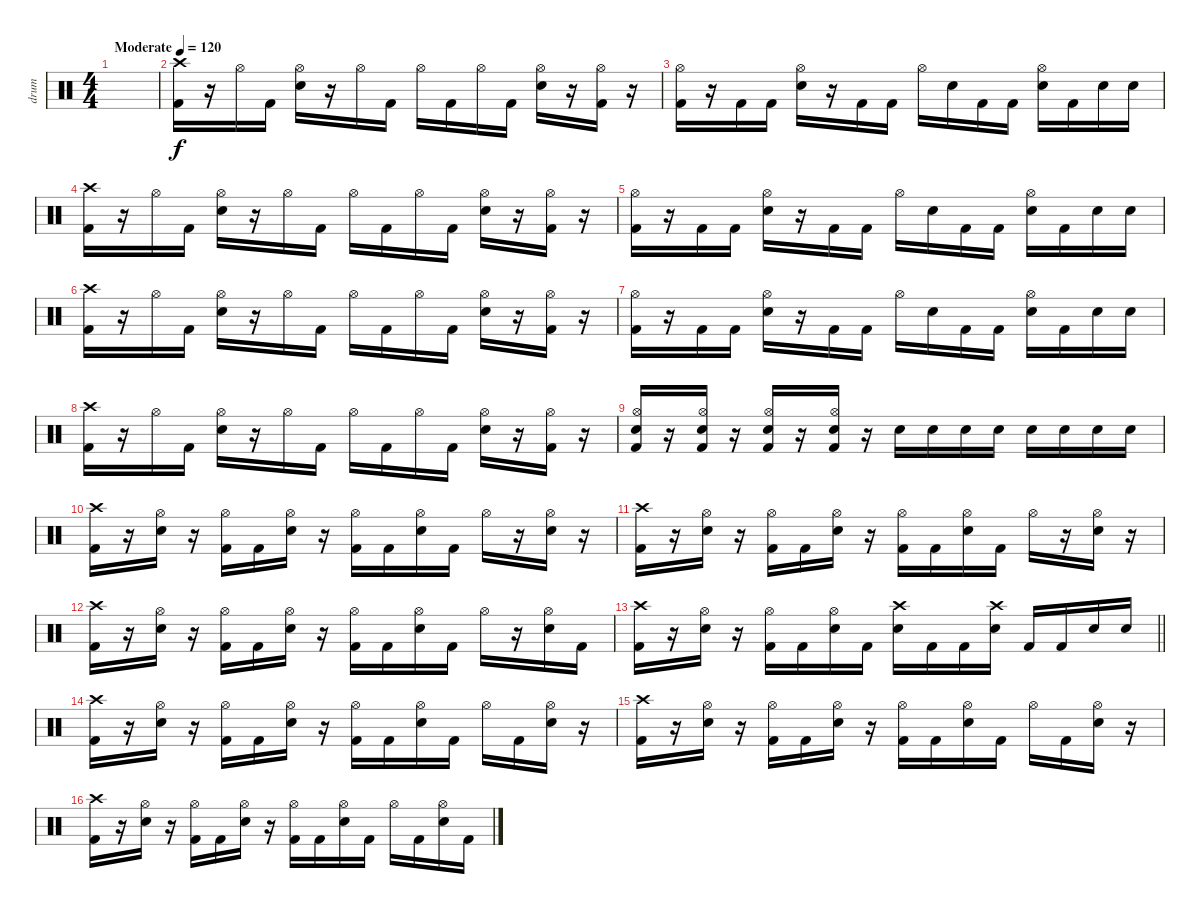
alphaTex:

\track ("drum" "drum") {instrument percussion}
\staff {score}
\articulation defaults
\ts (4 4)
\tempo (120 "Moderate")
\clef neutral
\ks c
|
("Crash high (hit)" "Kick (hit) 2").16 r.16 "Hi-Hat (open)".16 "Kick (hit) 2".16 ("Hi-Hat (open)" "Snare (hit) 2").16 r.16 "Hi-Hat (open)".16 "Kick (hit) 2".16 "Hi-Hat (open)".16 "Kick (hit) 2".16 "Hi-Hat (open)".16 "Kick (hit) 2".16 ("Hi-Hat (open)" "Snare (hit) 2").16 r.16 ("Hi-Hat (open)" "Kick (hit) 2").16 r.16 |
("Hi-Hat (open)" "Kick (hit) 2").16 r.16 "Kick (hit) 2".16 "Kick (hit) 2".16 ("Hi-Hat (open)" "Snare (hit) 2").16 r.16 "Kick (hit) 2".16 "Kick (hit) 2".16 "Hi-Hat (open)".16 "Snare (hit) 2".16 "Kick (hit) 2".16 "Kick (hit) 2".16 ("Hi-Hat (open)" "Snare (hit) 2").16 "Kick (hit) 2".16 "Snare (hit) 2".16 "Snare (hit) 2".16 |
("Crash high (hit)" "Kick (hit) 2").16 r.16 "Hi-Hat (open)".16 "Kick (hit) 2".16 ("Hi-Hat (open)" "Snare (hit) 2").16 r.16 "Hi-Hat (open)".16 "Kick (hit) 2".16 "Hi-Hat (open)".16 "Kick (hit) 2".16 "Hi-Hat (open)".16 "Kick (hit) 2".16 ("Hi-Hat (open)" "Snare (hit) 2").16 r.16 ("Hi-Hat (open)" "Kick (hit) 2").16 r.16 |
("Hi-Hat (open)" "Kick (hit) 2").16 r.16 "Kick (hit) 2".16 "Kick (hit) 2".16 ("Hi-Hat (open)" "Snare (hit) 2").16 r.16 "Kick (hit) 2".16 "Kick (hit) 2".16 "Hi-Hat (open)".16 "Snare (hit) 2".16 "Kick (hit) 2".16 "Kick (hit) 2".16 ("Hi-Hat (open)" "Snare (hit) 2").16 "Kick (hit) 2".16 "Snare (hit) 2".16 "Snare (hit) 2".16 |
("Crash high (hit)" "Kick (hit) 2").16 r.16 "Hi-Hat (open)".16 "Kick (hit) 2".16 ("Hi-Hat (open)" "Snare (hit) 2").16 r.16 "Hi-Hat (open)".16 "Kick (hit) 2".16 "Hi-Hat (open)".16 "Kick (hit) 2".16 "Hi-Hat (open)".16 "Kick (hit) 2".16 ("Hi-Hat (open)" "Snare (hit) 2").16 r.16 ("Hi-Hat (open)" "Kick (hit) 2").16 r.16 |
("Hi-Hat (open)" "Kick (hit) 2").16 r.16 "Kick (hit) 2".16 "Kick (hit) 2".16 ("Hi-Hat (open)" "Snare (hit) 2").16 r.16 "Kick (hit) 2".16 "Kick (hit) 2".16 "Hi-Hat (open)".16 "Snare (hit) 2".16 "Kick (hit) 2".16 "Kick (hit) 2".16 ("Hi-Hat (open)" "Snare (hit) 2").16 "Kick (hit) 2".16 "Snare (hit) 2".16 "Snare (hit) 2".16 |
("Crash high (hit)" "Kick (hit) 2").16 r.16 "Hi-Hat (open)".16 "Kick (hit) 2".16 ("Hi-Hat (open)" "Snare (hit) 2").16 r.16 "Hi-Hat (open)".16 "Kick (hit) 2".16 "Hi-Hat (open)".16 "Kick (hit) 2".16 "Hi-Hat (open)".16 "Kick (hit) 2".16 ("Hi-Hat (open)" "Snare (hit) 2").16 r.16 ("Hi-Hat (open)" "Kick (hit) 2").16 r.16 |
("Hi-Hat (open)" "Snare (hit) 2" "Kick (hit) 2").16 r.16 ("Hi-Hat (open)" "Snare (hit) 2" "Kick (hit) 2").16 r.16 ("Hi-Hat (open)" "Snare (hit) 2" "Kick (hit) 2").16 r.16 ("Hi-Hat (open)" "Snare (hit) 2" "Kick (hit) 2").16 r.16 "Snare (hit) 2".16 "Snare (hit) 2".16 "Snare (hit) 2".16 "Snare (hit) 2".16 "Snare (hit) 2".16 "Snare (hit) 2".16 "Snare (hit) 2".16 "Snare (hit) 2".16 |
("Crash high (hit)" "Kick (hit) 2").16 r.16 ("Hi-Hat (open)" "Snare (hit) 2").16 r.16 ("Hi-Hat (open)" "Kick (hit) 2").16 "Kick (hit) 2".16 ("Hi-Hat (open)" "Snare (hit) 2").16 r.16 ("Hi-Hat (open)" "Kick (hit) 2").16 "Kick (hit) 2".16 ("Hi-Hat (open)" "Snare (hit) 2").16 "Kick (hit) 2".16 "Hi-Hat (open)".16 r.16 ("Hi-Hat (open)" "Snare (hit) 2").16 r.16 |
("Crash high (hit)" "Kick (hit) 2").16 r.16 ("Hi-Hat (open)" "Snare (hit) 2").16 r.16 ("Hi-Hat (open)" "Kick (hit) 2").16 "Kick (hit) 2".16 ("Hi-Hat (open)" "Snare (hit) 2").16 r.16 ("Hi-Hat (open)" "Kick (hit) 2").16 "Kick (hit) 2".16 ("Hi-Hat (open)" "Snare (hit) 2").16 "Kick (hit) 2".16 "Hi-Hat (open)".16 r.16 ("Hi-Hat (open)" "Snare (hit) 2").16 r.16 |
("Crash high (hit)" "Kick (hit) 2").16 r.16 ("Hi-Hat (open)" "Snare (hit) 2").16 r.16 ("Hi-Hat (open)" "Kick (hit) 2").16 "Kick (hit) 2".16 ("Hi-Hat (open)" "Snare (hit) 2").16 r.16 ("Hi-Hat (open)" "Kick (hit) 2").16 "Kick (hit) 2".16 ("Hi-Hat (open)" "Snare (hit) 2").16 "Kick (hit) 2".16 "Hi-Hat (open)".16 r.16 ("Hi-Hat (open)" "Snare (hit) 2").16 "Kick (hit) 2".16 |
\barLineRight lightlight
("Crash high (hit)" "Kick (hit) 2").16 r.16 ("Hi-Hat (open)" "Snare (hit) 2").16 r.16 ("Hi-Hat (open)" "Kick (hit) 2").16 "Kick (hit) 2".16 ("Hi-Hat (open)" "Snare (hit) 2").16 "Kick (hit) 2".16 ("Crash high (hit)" "Snare (hit) 2").16 "Kick (hit) 2".16 "Kick (hit) 2".16 ("Crash high (hit)" "Snare (hit) 2").16 "Kick (hit) 2".16 "Kick (hit) 2".16 "Snare (hit) 2".16 "Snare (hit) 2".16 |
("Crash high (hit)" "Kick (hit) 2").16 r.16 ("Hi-Hat (open)" "Snare (hit) 2").16 r.16 ("Hi-Hat (open)" "Kick (hit) 2").16 "Kick (hit) 2".16 ("Hi-Hat (open)" "Snare (hit) 2").16 r.16 ("Hi-Hat (open)" "Kick (hit) 2").16 "Kick (hit) 2".16 ("Hi-Hat (open)" "Snare (hit) 2").16 "Kick (hit) 2".16 "Hi-Hat (open)".16 "Kick (hit) 2".16 ("Hi-Hat (open)" "Snare (hit) 2").16 r.16 |
("Crash high (hit)" "Kick (hit) 2").16 r.16 ("Hi-Hat (open)" "Snare (hit) 2").16 r.16 ("Hi-Hat (open)" "Kick (hit) 2").16 "Kick (hit) 2".16 ("Hi-Hat (open)" "Snare (hit) 2").16 r.16 ("Hi-Hat (open)" "Kick (hit) 2").16 "Kick (hit) 2".16 ("Hi-Hat (open)" "Snare (hit) 2").16 "Kick (hit) 2".16 "Hi-Hat (open)".16 "Kick (hit) 2".16 ("Hi-Hat (open)" "Snare (hit) 2").16 r.16 |
("Crash high (hit)" "Kick (hit) 2").16 r.16 ("Hi-Hat (open)" "Snare (hit) 2").16 r.16 ("Hi-Hat (open)" "Kick (hit) 2").16 "Kick (hit) 2".16 ("Hi-Hat (open)" "Snare (hit) 2").16 r.16 ("Hi-Hat (open)" "Kick (hit) 2").16 "Kick (hit) 2".16 ("Hi-Hat (open)" "Snare (hit) 2").16 "Kick (hit) 2".16 "Hi-Hat (open)".16 "Kick (hit) 2".16 ("Hi-Hat (open)" "Snare (hit) 2").16 "Kick (hit) 2".16
